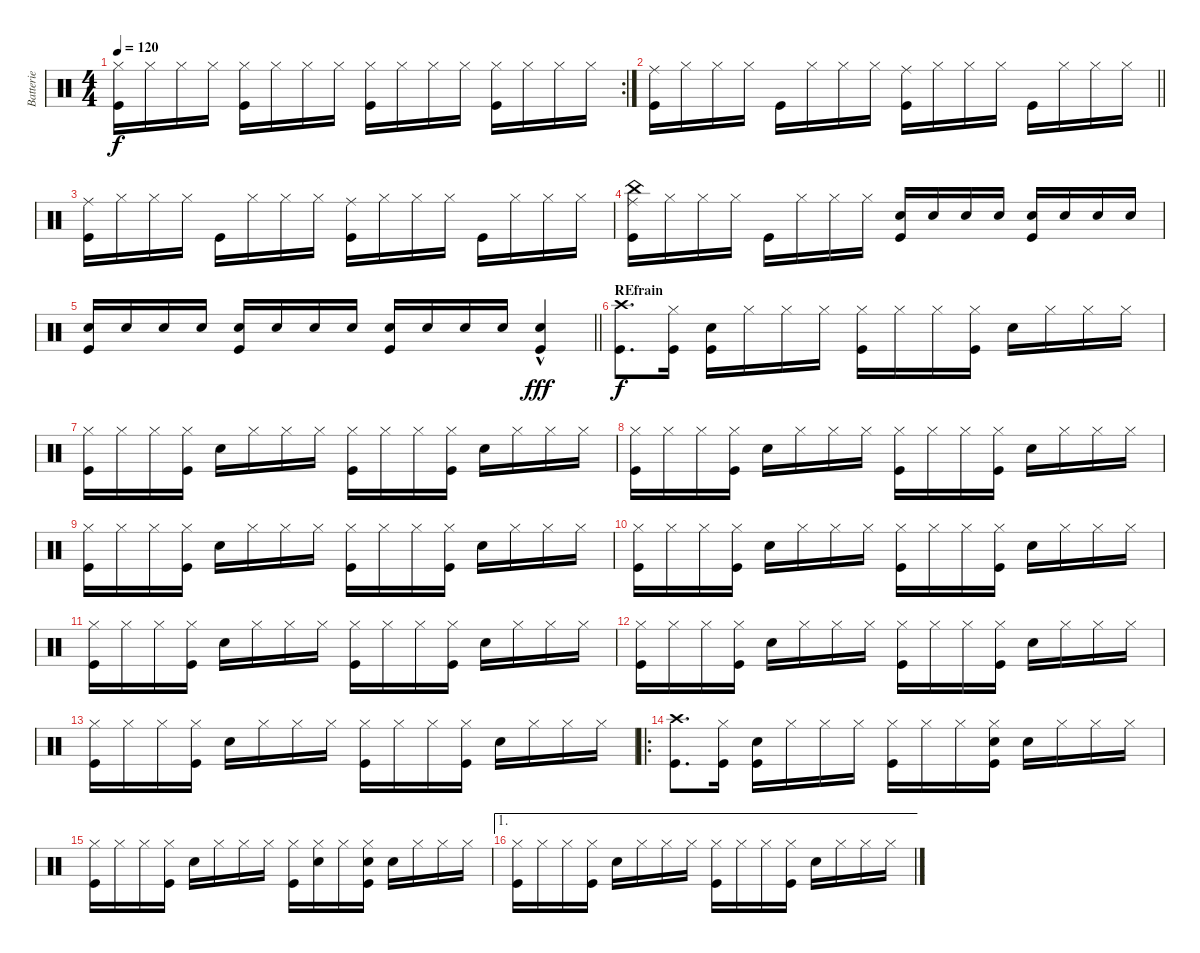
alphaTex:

\track ("Batterie" "Batterie") {instrument percussion}
\staff {score}
\articulation defaults
\rc 2
\ts (4 4)
\tempo 120
\clef neutral
\ks c
("Kick (hit)" "Hi-Hat (closed)").16{dy f} "Hi-Hat (closed)".16 "Hi-Hat (closed)".16 "Hi-Hat (closed)".16 ("Kick (hit)" "Hi-Hat (closed)").16 "Hi-Hat (closed)".16 "Hi-Hat (closed)".16 "Hi-Hat (closed)".16 ("Kick (hit)" "Hi-Hat (closed)").16 "Hi-Hat (closed)".16 "Hi-Hat (closed)".16 "Hi-Hat (closed)".16 ("Kick (hit)" "Hi-Hat (closed)").16 "Hi-Hat (closed)".16 "Hi-Hat (closed)".16 "Hi-Hat (closed)".16 |
\barLineRight lightlight
("Kick (hit)" "Ride (middle)").16 "Hi-Hat (closed)".16 "Hi-Hat (closed)".16 "Hi-Hat (closed)".16 "Kick (hit)".16 "Hi-Hat (closed)".16 "Hi-Hat (closed)".16 "Hi-Hat (closed)".16 ("Kick (hit)" "Ride (middle)").16 "Hi-Hat (closed)".16 "Hi-Hat (closed)".16 "Hi-Hat (closed)".16 "Kick (hit)".16 "Hi-Hat (closed)".16 "Hi-Hat (closed)".16 "Hi-Hat (closed)".16 |
("Kick (hit)" "Ride (middle)").16 "Hi-Hat (closed)".16 "Hi-Hat (closed)".16 "Hi-Hat (closed)".16 "Kick (hit)".16 "Hi-Hat (closed)".16 "Hi-Hat (closed)".16 "Hi-Hat (closed)".16 ("Kick (hit)" "Ride (middle)").16 "Hi-Hat (closed)".16 "Hi-Hat (closed)".16 "Hi-Hat (closed)".16 "Kick (hit)".16 "Hi-Hat (closed)".16 "Hi-Hat (closed)".16 "Hi-Hat (closed)".16 |
("Kick (hit)" "Ride (middle)" "China (hit)").16 "Hi-Hat (closed)".16 "Hi-Hat (closed)".16 "Hi-Hat (closed)".16 "Kick (hit)".16 "Hi-Hat (closed)".16 "Hi-Hat (closed)".16 "Hi-Hat (closed)".16{volume 3} ("Kick (hit)" "Snare (hit) 2").16{volume 16} "Snare (hit) 2".16 "Snare (hit) 2".16 "Snare (hit) 2".16 ("Kick (hit)" "Snare (hit) 2").16 "Snare (hit) 2".16 "Snare (hit) 2".16 "Snare (hit) 2".16 |
\barLineRight lightlight
("Kick (hit)" "Snare (hit) 2").16 "Snare (hit) 2".16 "Snare (hit) 2".16 "Snare (hit) 2".16 ("Snare (hit) 2" "Kick (hit)").16 "Snare (hit) 2".16 "Snare (hit) 2".16 "Snare (hit) 2".16 ("Snare (hit) 2" "Kick (hit)").16 "Snare (hit) 2".16 "Snare (hit) 2".16 "Snare (hit) 2".16 ("Snare (hit) 2"{hac} "Kick (hit)").4{dy fff} |
\section ("" "REfrain")
("Crash high (hit)" "Kick (hit)").8{d dy f volume 13} ("Kick (hit)" "Hi-Hat (closed)").16 ("Snare (hit) 2" "Kick (hit)").16 "Hi-Hat (closed)".16 "Hi-Hat (closed)".16 "Hi-Hat (closed)".16 ("Hi-Hat (closed)" "Kick (hit)").16 "Hi-Hat (closed)".16 "Hi-Hat (closed)".16 ("Hi-Hat (closed)" "Kick (hit)").16 "Snare (hit) 2".16 "Hi-Hat (closed)".16 "Hi-Hat (closed)".16 "Hi-Hat (closed)".16 |
("Hi-Hat (closed)" "Kick (hit)").16 "Hi-Hat (closed)".16 "Hi-Hat (closed)".16 ("Hi-Hat (closed)" "Kick (hit)").16 "Snare (hit) 2".16 "Hi-Hat (closed)".16 "Hi-Hat (closed)".16 "Hi-Hat (closed)".16 ("Hi-Hat (closed)" "Kick (hit)").16 "Hi-Hat (closed)".16 "Hi-Hat (closed)".16 ("Hi-Hat (closed)" "Kick (hit)").16 "Snare (hit) 2".16 "Hi-Hat (closed)".16 "Hi-Hat (closed)".16 "Hi-Hat (closed)".16 |
("Hi-Hat (closed)" "Kick (hit)").16 "Hi-Hat (closed)".16 "Hi-Hat (closed)".16 ("Hi-Hat (closed)" "Kick (hit)").16 "Snare (hit) 2".16 "Hi-Hat (closed)".16 "Hi-Hat (closed)".16 "Hi-Hat (closed)".16 ("Hi-Hat (closed)" "Kick (hit)").16 "Hi-Hat (closed)".16 "Hi-Hat (closed)".16 ("Hi-Hat (closed)" "Kick (hit)").16 "Snare (hit) 2".16 "Hi-Hat (closed)".16 "Hi-Hat (closed)".16 "Hi-Hat (closed)".16 |
("Hi-Hat (closed)" "Kick (hit)").16 "Hi-Hat (closed)".16 "Hi-Hat (closed)".16 ("Hi-Hat (closed)" "Kick (hit)").16 "Snare (hit) 2".16 "Hi-Hat (closed)".16 "Hi-Hat (closed)".16 "Hi-Hat (closed)".16 ("Hi-Hat (closed)" "Kick (hit)").16 "Hi-Hat (closed)".16 "Hi-Hat (closed)".16 ("Hi-Hat (closed)" "Kick (hit)").16 "Snare (hit) 2".16 "Hi-Hat (closed)".16 "Hi-Hat (closed)".16 "Hi-Hat (closed)".16 |
("Hi-Hat (closed)" "Kick (hit)").16 "Hi-Hat (closed)".16 "Hi-Hat (closed)".16 ("Hi-Hat (closed)" "Kick (hit)").16 "Snare (hit) 2".16 "Hi-Hat (closed)".16 "Hi-Hat (closed)".16 "Hi-Hat (closed)".16 ("Hi-Hat (closed)" "Kick (hit)").16 "Hi-Hat (closed)".16 "Hi-Hat (closed)".16 ("Hi-Hat (closed)" "Kick (hit)").16 "Snare (hit) 2".16 "Hi-Hat (closed)".16 "Hi-Hat (closed)".16 "Hi-Hat (closed)".16 |
("Hi-Hat (closed)" "Kick (hit)").16 "Hi-Hat (closed)".16 "Hi-Hat (closed)".16 ("Hi-Hat (closed)" "Kick (hit)").16 "Snare (hit) 2".16 "Hi-Hat (closed)".16 "Hi-Hat (closed)".16 "Hi-Hat (closed)".16 ("Hi-Hat (closed)" "Kick (hit)").16 "Hi-Hat (closed)".16 "Hi-Hat (closed)".16 ("Hi-Hat (closed)" "Kick (hit)").16 "Snare (hit) 2".16 "Hi-Hat (closed)".16 "Hi-Hat (closed)".16 "Hi-Hat (closed)".16 |
("Hi-Hat (closed)" "Kick (hit)").16 "Hi-Hat (closed)".16 "Hi-Hat (closed)".16 ("Hi-Hat (closed)" "Kick (hit)").16 "Snare (hit) 2".16 "Hi-Hat (closed)".16 "Hi-Hat (closed)".16 "Hi-Hat (closed)".16 ("Hi-Hat (closed)" "Kick (hit)").16 "Hi-Hat (closed)".16 "Hi-Hat (closed)".16 ("Hi-Hat (closed)" "Kick (hit)").16 "Snare (hit) 2".16 "Hi-Hat (closed)".16 "Hi-Hat (closed)".16 "Hi-Hat (closed)".16 |
("Hi-Hat (closed)" "Kick (hit)").16 "Hi-Hat (closed)".16 "Hi-Hat (closed)".16 ("Hi-Hat (closed)" "Kick (hit)").16 "Snare (hit) 2".16 "Hi-Hat (closed)".16 "Hi-Hat (closed)".16 "Hi-Hat (closed)".16 ("Hi-Hat (closed)" "Kick (hit)").16 "Hi-Hat (closed)".16 "Hi-Hat (closed)".16 ("Hi-Hat (closed)" "Kick (hit)").16 "Snare (hit) 2".16 "Hi-Hat (closed)".16 "Hi-Hat (closed)".16 "Hi-Hat (closed)".16 |
\ro
("Crash high (hit)" "Kick (hit)").8{d volume 13} ("Kick (hit)" "Hi-Hat (closed)").16 ("Snare (hit) 2" "Kick (hit)").16 "Hi-Hat (closed)".16 "Hi-Hat (closed)".16 "Hi-Hat (closed)".16 ("Hi-Hat (closed)" "Kick (hit)").16 "Hi-Hat (closed)".16 "Hi-Hat (closed)".16 ("Hi-Hat (closed)" "Kick (hit)" "Snare (hit) 2").16 "Snare (hit) 2".16 "Hi-Hat (closed)".16 "Hi-Hat (closed)".16 "Hi-Hat (closed)".16 |
("Hi-Hat (closed)" "Kick (hit)").16 "Hi-Hat (closed)".16 "Hi-Hat (closed)".16 ("Hi-Hat (closed)" "Kick (hit)").16 "Snare (hit) 2".16 "Hi-Hat (closed)".16 "Hi-Hat (closed)".16 "Hi-Hat (closed)".16 ("Hi-Hat (closed)" "Kick (hit)").16 ("Hi-Hat (closed)" "Snare (hit) 2").16 "Hi-Hat (closed)".16 ("Hi-Hat (closed)" "Kick (hit)" "Snare (hit) 2").16 "Snare (hit) 2".16 "Hi-Hat (closed)".16 "Hi-Hat (closed)".16 "Hi-Hat (closed)".16 |
\ae 1
("Hi-Hat (closed)" "Kick (hit)").16 "Hi-Hat (closed)".16 "Hi-Hat (closed)".16 ("Hi-Hat (closed)" "Kick (hit)").16 "Snare (hit) 2".16 "Hi-Hat (closed)".16 "Hi-Hat (closed)".16 "Hi-Hat (closed)".16 ("Hi-Hat (closed)" "Kick (hit)").16 "Hi-Hat (closed)".16 "Hi-Hat (closed)".16 ("Hi-Hat (closed)" "Kick (hit)").16 "Snare (hit) 2".16 "Hi-Hat (closed)".16 "Hi-Hat (closed)".16 "Hi-Hat (closed)".16
